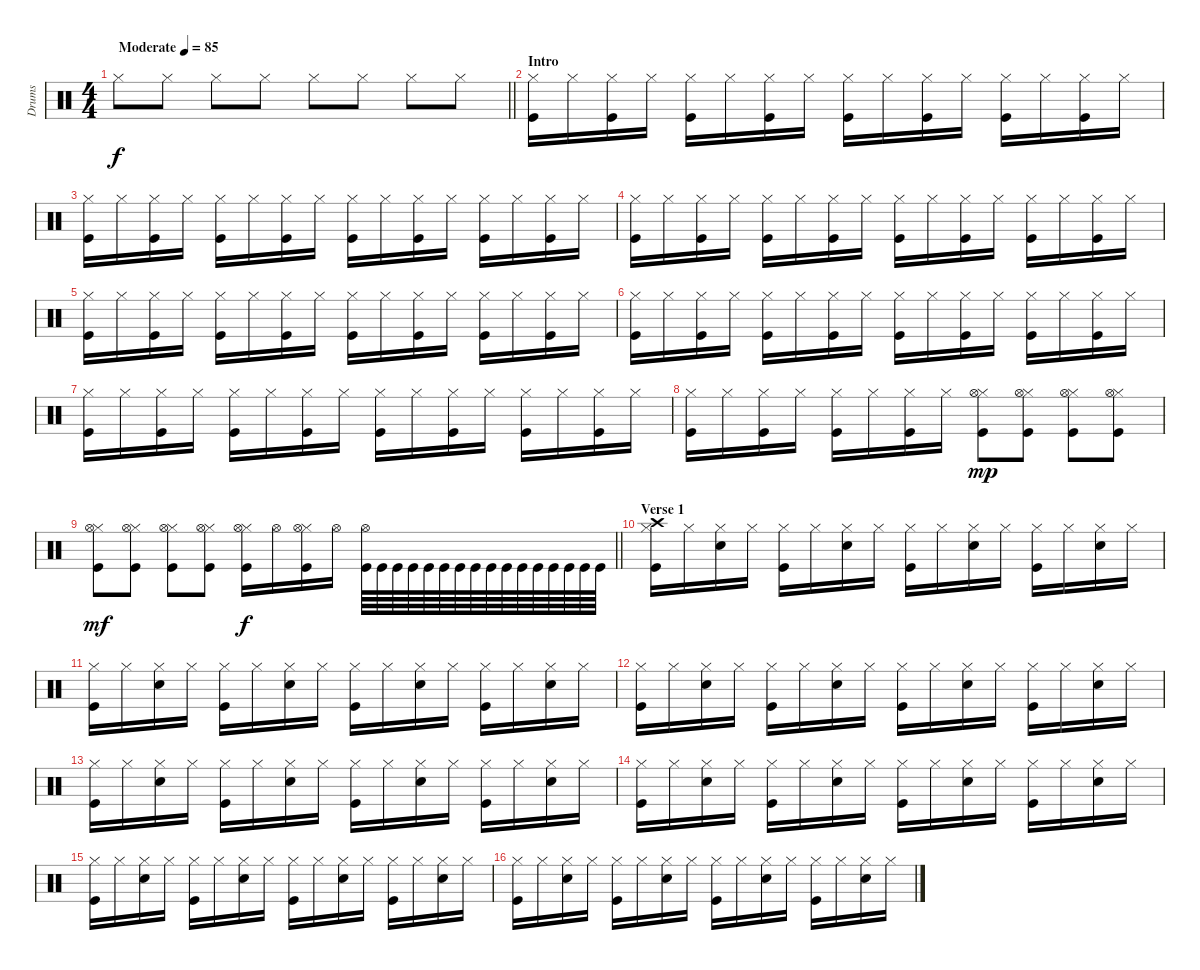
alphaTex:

\track ("Drums" "Drums") {instrument percussion}
\staff {score}
\articulation defaults
\ts (4 4)
\tempo (85 "Moderate")
\clef neutral
\barLineRight lightlight
\ks c "Hi-Hat (closed)".8{dy f} "Hi-Hat (closed)".8 "Hi-Hat (closed)".8 "Hi-Hat (closed)".8 "Hi-Hat (closed)".8 "Hi-Hat (closed)".8 "Hi-Hat (closed)".8 "Hi-Hat (closed)".8
|
\section ("" "Intro")
("Hi-Hat (closed)" "Kick (hit)").16 "Hi-Hat (closed)".16 ("Hi-Hat (closed)" "Kick (hit)").16 "Hi-Hat (closed)".16 ("Hi-Hat (closed)" "Kick (hit)").16 "Hi-Hat (closed)".16 ("Hi-Hat (closed)" "Kick (hit)").16 "Hi-Hat (closed)".16 ("Hi-Hat (closed)" "Kick (hit)").16 "Hi-Hat (closed)".16 ("Hi-Hat (closed)" "Kick (hit)").16 "Hi-Hat (closed)".16 ("Hi-Hat (closed)" "Kick (hit)").16 "Hi-Hat (closed)".16 ("Hi-Hat (closed)" "Kick (hit)").16 "Hi-Hat (closed)".16 |
("Hi-Hat (closed)" "Kick (hit)").16 "Hi-Hat (closed)".16 ("Hi-Hat (closed)" "Kick (hit)").16 "Hi-Hat (closed)".16 ("Hi-Hat (closed)" "Kick (hit)").16 "Hi-Hat (closed)".16 ("Hi-Hat (closed)" "Kick (hit)").16 "Hi-Hat (closed)".16 ("Hi-Hat (closed)" "Kick (hit)").16 "Hi-Hat (closed)".16 ("Hi-Hat (closed)" "Kick (hit)").16 "Hi-Hat (closed)".16 ("Hi-Hat (closed)" "Kick (hit)").16 "Hi-Hat (closed)".16 ("Hi-Hat (closed)" "Kick (hit)").16 "Hi-Hat (closed)".16 |
("Hi-Hat (closed)" "Kick (hit)").16 "Hi-Hat (closed)".16 ("Hi-Hat (closed)" "Kick (hit)").16 "Hi-Hat (closed)".16 ("Hi-Hat (closed)" "Kick (hit)").16 "Hi-Hat (closed)".16 ("Hi-Hat (closed)" "Kick (hit)").16 "Hi-Hat (closed)".16 ("Hi-Hat (closed)" "Kick (hit)").16 "Hi-Hat (closed)".16 ("Hi-Hat (closed)" "Kick (hit)").16 "Hi-Hat (closed)".16 ("Hi-Hat (closed)" "Kick (hit)").16 "Hi-Hat (closed)".16 ("Hi-Hat (closed)" "Kick (hit)").16 "Hi-Hat (closed)".16 |
("Hi-Hat (closed)" "Kick (hit)").16 "Hi-Hat (closed)".16 ("Hi-Hat (closed)" "Kick (hit)").16 "Hi-Hat (closed)".16 ("Hi-Hat (closed)" "Kick (hit)").16 "Hi-Hat (closed)".16 ("Hi-Hat (closed)" "Kick (hit)").16 "Hi-Hat (closed)".16 ("Hi-Hat (closed)" "Kick (hit)").16 "Hi-Hat (closed)".16 ("Hi-Hat (closed)" "Kick (hit)").16 "Hi-Hat (closed)".16 ("Hi-Hat (closed)" "Kick (hit)").16 "Hi-Hat (closed)".16 ("Hi-Hat (closed)" "Kick (hit)").16 "Hi-Hat (closed)".16 |
("Hi-Hat (closed)" "Kick (hit)").16 "Hi-Hat (closed)".16 ("Hi-Hat (closed)" "Kick (hit)").16 "Hi-Hat (closed)".16 ("Hi-Hat (closed)" "Kick (hit)").16 "Hi-Hat (closed)".16 ("Hi-Hat (closed)" "Kick (hit)").16 "Hi-Hat (closed)".16 ("Hi-Hat (closed)" "Kick (hit)").16 "Hi-Hat (closed)".16 ("Hi-Hat (closed)" "Kick (hit)").16 "Hi-Hat (closed)".16 ("Hi-Hat (closed)" "Kick (hit)").16 "Hi-Hat (closed)".16 ("Hi-Hat (closed)" "Kick (hit)").16 "Hi-Hat (closed)".16 |
("Hi-Hat (closed)" "Kick (hit)").16 "Hi-Hat (closed)".16 ("Hi-Hat (closed)" "Kick (hit)").16 "Hi-Hat (closed)".16 ("Hi-Hat (closed)" "Kick (hit)").16 "Hi-Hat (closed)".16 ("Hi-Hat (closed)" "Kick (hit)").16 "Hi-Hat (closed)".16 ("Hi-Hat (closed)" "Kick (hit)").16 "Hi-Hat (closed)".16 ("Hi-Hat (closed)" "Kick (hit)").16 "Hi-Hat (closed)".16 ("Hi-Hat (closed)" "Kick (hit)").16 "Hi-Hat (closed)".16 ("Hi-Hat (closed)" "Kick (hit)").16 "Hi-Hat (closed)".16 |
("Hi-Hat (closed)" "Kick (hit)").16 "Hi-Hat (closed)".16 ("Hi-Hat (closed)" "Kick (hit)").16 "Hi-Hat (closed)".16 ("Hi-Hat (closed)" "Kick (hit)").16 "Hi-Hat (closed)".16 ("Hi-Hat (closed)" "Kick (hit)").16 "Hi-Hat (closed)".16 ("Hi-Hat (closed)" "Kick (hit)" "Hi-Hat (open)").8{dy mp} ("Hi-Hat (closed)" "Kick (hit)" "Hi-Hat (open)").8 ("Hi-Hat (closed)" "Kick (hit)" "Hi-Hat (open)").8 ("Hi-Hat (closed)" "Kick (hit)" "Hi-Hat (open)").8 |
\barLineRight lightlight
("Hi-Hat (closed)" "Kick (hit)" "Hi-Hat (open)").8{dy mf} ("Hi-Hat (closed)" "Kick (hit)" "Hi-Hat (open)").8 ("Hi-Hat (closed)" "Kick (hit)" "Hi-Hat (open)").8 ("Hi-Hat (closed)" "Kick (hit)" "Hi-Hat (open)").8 ("Hi-Hat (closed)" "Kick (hit)" "Hi-Hat (open)").16{dy f} "Hi-Hat (open)".16 ("Hi-Hat (closed)" "Kick (hit)" "Hi-Hat (open)").16 "Hi-Hat (open)".16 ("Kick (hit)" "Hi-Hat (open)").64 "Kick (hit)".64 "Kick (hit)".64 "Kick (hit)".64 "Kick (hit)".64 "Kick (hit)".64 "Kick (hit)".64 "Kick (hit)".64 "Kick (hit)".64 "Kick (hit)".64 "Kick (hit)".64 "Kick (hit)".64 "Kick (hit)".64 "Kick (hit)".64 "Kick (hit)".64 "Kick (hit)".64 |
\section ("" "Verse 1")
("Hi-Hat (closed)" "Kick (hit)" "Crash high (hit)").16 "Hi-Hat (closed)".16 ("Hi-Hat (closed)" "Electric Snare (hit)").16 "Hi-Hat (closed)".16 ("Hi-Hat (closed)" "Kick (hit)").16 "Hi-Hat (closed)".16 ("Hi-Hat (closed)" "Electric Snare (hit)").16 "Hi-Hat (closed)".16 ("Hi-Hat (closed)" "Kick (hit)").16 "Hi-Hat (closed)".16 ("Hi-Hat (closed)" "Electric Snare (hit)").16 "Hi-Hat (closed)".16 ("Hi-Hat (closed)" "Kick (hit)").16 "Hi-Hat (closed)".16 ("Hi-Hat (closed)" "Electric Snare (hit)").16 "Hi-Hat (closed)".16 |
("Hi-Hat (closed)" "Kick (hit)").16 "Hi-Hat (closed)".16 ("Hi-Hat (closed)" "Electric Snare (hit)").16 "Hi-Hat (closed)".16 ("Hi-Hat (closed)" "Kick (hit)").16 "Hi-Hat (closed)".16 ("Hi-Hat (closed)" "Electric Snare (hit)").16 "Hi-Hat (closed)".16 ("Hi-Hat (closed)" "Kick (hit)").16 "Hi-Hat (closed)".16 ("Hi-Hat (closed)" "Electric Snare (hit)").16 "Hi-Hat (closed)".16 ("Hi-Hat (closed)" "Kick (hit)").16 "Hi-Hat (closed)".16 ("Hi-Hat (closed)" "Electric Snare (hit)").16 "Hi-Hat (closed)".16 |
("Hi-Hat (closed)" "Kick (hit)").16 "Hi-Hat (closed)".16 ("Hi-Hat (closed)" "Electric Snare (hit)").16 "Hi-Hat (closed)".16 ("Hi-Hat (closed)" "Kick (hit)").16 "Hi-Hat (closed)".16 ("Hi-Hat (closed)" "Electric Snare (hit)").16 "Hi-Hat (closed)".16 ("Hi-Hat (closed)" "Kick (hit)").16 "Hi-Hat (closed)".16 ("Hi-Hat (closed)" "Electric Snare (hit)").16 "Hi-Hat (closed)".16 ("Hi-Hat (closed)" "Kick (hit)").16 "Hi-Hat (closed)".16 ("Hi-Hat (closed)" "Electric Snare (hit)").16 "Hi-Hat (closed)".16 |
("Hi-Hat (closed)" "Kick (hit)").16 "Hi-Hat (closed)".16 ("Hi-Hat (closed)" "Electric Snare (hit)").16 "Hi-Hat (closed)".16 ("Hi-Hat (closed)" "Kick (hit)").16 "Hi-Hat (closed)".16 ("Hi-Hat (closed)" "Electric Snare (hit)").16 "Hi-Hat (closed)".16 ("Hi-Hat (closed)" "Kick (hit)").16 "Hi-Hat (closed)".16 ("Hi-Hat (closed)" "Electric Snare (hit)").16 "Hi-Hat (closed)".16 ("Hi-Hat (closed)" "Kick (hit)").16 "Hi-Hat (closed)".16 ("Hi-Hat (closed)" "Electric Snare (hit)").16 "Hi-Hat (closed)".16 |
("Hi-Hat (closed)" "Kick (hit)").16 "Hi-Hat (closed)".16 ("Hi-Hat (closed)" "Electric Snare (hit)").16 "Hi-Hat (closed)".16 ("Hi-Hat (closed)" "Kick (hit)").16 "Hi-Hat (closed)".16 ("Hi-Hat (closed)" "Electric Snare (hit)").16 "Hi-Hat (closed)".16 ("Hi-Hat (closed)" "Kick (hit)").16 "Hi-Hat (closed)".16 ("Hi-Hat (closed)" "Electric Snare (hit)").16 "Hi-Hat (closed)".16 ("Hi-Hat (closed)" "Kick (hit)").16 "Hi-Hat (closed)".16 ("Hi-Hat (closed)" "Electric Snare (hit)").16 "Hi-Hat (closed)".16 |
("Hi-Hat (closed)" "Kick (hit)").16 "Hi-Hat (closed)".16 ("Hi-Hat (closed)" "Electric Snare (hit)").16 "Hi-Hat (closed)".16 ("Hi-Hat (closed)" "Kick (hit)").16 "Hi-Hat (closed)".16 ("Hi-Hat (closed)" "Electric Snare (hit)").16 "Hi-Hat (closed)".16 ("Hi-Hat (closed)" "Kick (hit)").16 "Hi-Hat (closed)".16 ("Hi-Hat (closed)" "Electric Snare (hit)").16 "Hi-Hat (closed)".16 ("Hi-Hat (closed)" "Kick (hit)").16 "Hi-Hat (closed)".16 ("Hi-Hat (closed)" "Electric Snare (hit)").16 "Hi-Hat (closed)".16 |
("Hi-Hat (closed)" "Kick (hit)").16 "Hi-Hat (closed)".16 ("Hi-Hat (closed)" "Electric Snare (hit)").16 "Hi-Hat (closed)".16 ("Hi-Hat (closed)" "Kick (hit)").16 "Hi-Hat (closed)".16 ("Hi-Hat (closed)" "Electric Snare (hit)").16 "Hi-Hat (closed)".16 ("Hi-Hat (closed)" "Kick (hit)").16 "Hi-Hat (closed)".16 ("Hi-Hat (closed)" "Electric Snare (hit)").16 "Hi-Hat (closed)".16 ("Hi-Hat (closed)" "Kick (hit)").16 "Hi-Hat (closed)".16 ("Hi-Hat (closed)" "Electric Snare (hit)").16 "Hi-Hat (closed)".16
